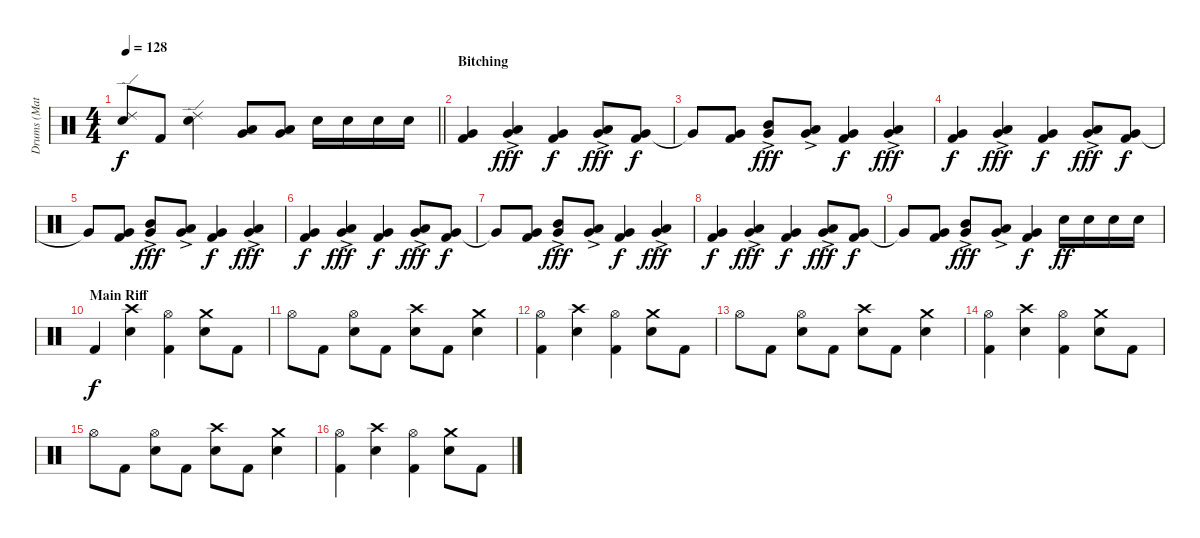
\track ("Drums (Matt)" "Drums (Mat") {instrument percussion}
\staff {score}
\articulation defaults
\ts (4 4)
\tempo 128
\clef neutral
\barLineRight lightlight
\ks c
("Ride (edge) 2" "Snare (hit) 2").8{dy f} "Kick (hit) 2".8 ("Ride (edge) 2" "Snare (hit) 2").4 ("Very Low Tom (hit)" "Low Tom (hit)").8 ("Very Low Tom (hit)" "Low Tom (hit)").8 "Snare (hit) 2".16 "Snare (hit) 2".16 "Snare (hit) 2".16 "Snare (hit) 2".16 |
\section ("" "Bitching")
("Very Low Tom (hit)" "Kick (hit) 2").4 ("Low Tom (hit)" "Very Low Tom (hit)"{ac}).4{dy fff} ("Very Low Tom (hit)" "Kick (hit) 2").4{dy f} ("Low Tom (hit)" "Very Low Tom (hit)"{ac}).8{dy fff} ("Very Low Tom (hit)" "Kick (hit) 2").8{dy f} |
"Very Low Tom (hit)"{t}.8 ("Very Low Tom (hit)" "Kick (hit) 2").8 ("Mid Tom (hit)" "Very Low Tom (hit)"{ac}).8{dy fff} ("Low Tom (hit)" "Very Low Tom (hit)"{ac}).8 ("Very Low Tom (hit)" "Kick (hit) 2").4{dy f} ("Low Tom (hit)" "Very Low Tom (hit)"{ac}).4{dy fff} |
("Very Low Tom (hit)" "Kick (hit) 2").4{dy f} ("Low Tom (hit)" "Very Low Tom (hit)"{ac}).4{dy fff} ("Very Low Tom (hit)" "Kick (hit) 2").4{dy f} ("Low Tom (hit)" "Very Low Tom (hit)"{ac}).8{dy fff} ("Very Low Tom (hit)" "Kick (hit) 2").8{dy f} |
"Very Low Tom (hit)"{t}.8 ("Very Low Tom (hit)" "Kick (hit) 2").8 ("Mid Tom (hit)" "Very Low Tom (hit)"{ac}).8{dy fff} ("Low Tom (hit)" "Very Low Tom (hit)"{ac}).8 ("Very Low Tom (hit)" "Kick (hit) 2").4{dy f} ("Low Tom (hit)" "Very Low Tom (hit)"{ac}).4{dy fff} |
("Very Low Tom (hit)" "Kick (hit) 2").4{dy f} ("Low Tom (hit)" "Very Low Tom (hit)"{ac}).4{dy fff} ("Very Low Tom (hit)" "Kick (hit) 2").4{dy f} ("Low Tom (hit)" "Very Low Tom (hit)"{ac}).8{dy fff} ("Very Low Tom (hit)" "Kick (hit) 2").8{dy f} |
"Very Low Tom (hit)"{t}.8 ("Very Low Tom (hit)" "Kick (hit) 2").8 ("Mid Tom (hit)" "Very Low Tom (hit)"{ac}).8{dy fff} ("Low Tom (hit)" "Very Low Tom (hit)"{ac}).8 ("Very Low Tom (hit)" "Kick (hit) 2").4{dy f} ("Low Tom (hit)" "Very Low Tom (hit)"{ac}).4{dy fff} |
("Very Low Tom (hit)" "Kick (hit) 2").4{dy f} ("Low Tom (hit)" "Very Low Tom (hit)"{ac}).4{dy fff} ("Very Low Tom (hit)" "Kick (hit) 2").4{dy f} ("Low Tom (hit)" "Very Low Tom (hit)"{ac}).8{dy fff} ("Very Low Tom (hit)" "Kick (hit) 2").8{dy f} |
"Very Low Tom (hit)"{t}.8 ("Very Low Tom (hit)" "Kick (hit) 2").8 ("Mid Tom (hit)" "Very Low Tom (hit)"{ac}).8{dy fff} ("Low Tom (hit)" "Very Low Tom (hit)"{ac}).8 ("Very Low Tom (hit)" "Kick (hit) 2").4{dy f} "Snare (hit) 2".16{dy ff} "Snare (hit) 2".16 "Snare (hit) 2".16 "Snare (hit) 2".16 |
\section ("" "Main Riff")
"Kick (hit) 2".4{dy f} ("Crash high (hit)" "Snare (hit) 2").4 ("Hi-Hat (open)" "Kick (hit) 2").4 ("Crash medium (hit)" "Snare (hit) 2").8 "Kick (hit) 2".8 |
"Hi-Hat (open)".8 "Kick (hit) 2".8 ("Hi-Hat (open)" "Snare (hit) 2").8 "Kick (hit) 2".8 ("Crash high (hit)" "Snare (hit) 2").8 "Kick (hit) 2".8 ("Crash medium (hit)" "Snare (hit) 2").4 |
("Hi-Hat (open)" "Kick (hit) 2").4 ("Crash high (hit)" "Snare (hit) 2").4 ("Hi-Hat (open)" "Kick (hit) 2").4 ("Crash medium (hit)" "Snare (hit) 2").8 "Kick (hit) 2".8 |
"Hi-Hat (open)".8 "Kick (hit) 2".8 ("Hi-Hat (open)" "Snare (hit) 2").8 "Kick (hit) 2".8 ("Crash high (hit)" "Snare (hit) 2").8 "Kick (hit) 2".8 ("Crash medium (hit)" "Snare (hit) 2").4 |
("Hi-Hat (open)" "Kick (hit) 2").4 ("Crash high (hit)" "Snare (hit) 2").4 ("Hi-Hat (open)" "Kick (hit) 2").4 ("Crash medium (hit)" "Snare (hit) 2").8 "Kick (hit) 2".8 |
"Hi-Hat (open)".8 "Kick (hit) 2".8 ("Hi-Hat (open)" "Snare (hit) 2").8 "Kick (hit) 2".8 ("Crash high (hit)" "Snare (hit) 2").8 "Kick (hit) 2".8 ("Crash medium (hit)" "Snare (hit) 2").4 |
("Hi-Hat (open)" "Kick (hit) 2").4 ("Crash high (hit)" "Snare (hit) 2").4 ("Hi-Hat (open)" "Kick (hit) 2").4 ("Crash medium (hit)" "Snare (hit) 2").8 "Kick (hit) 2".8
